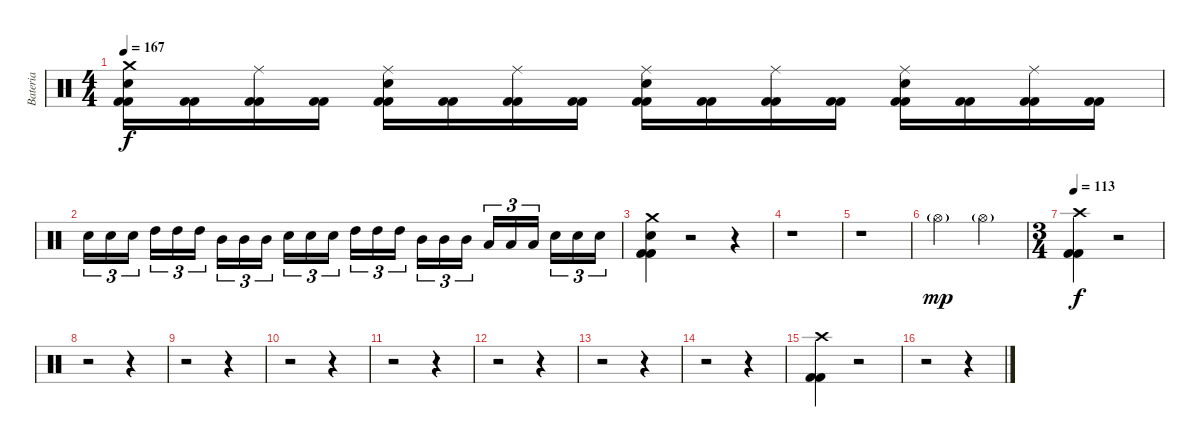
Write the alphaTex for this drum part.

\track ("Bateria" "Bateria") {instrument percussion}
\staff {score}
\articulation defaults
\ts (4 4)
\tempo 167
\clef neutral
\ks c
("Kick (hit) 2" "Kick (hit) 2" "Snare (hit) 2" "Crash medium (hit)").16{dy f} ("Kick (hit) 2" "Kick (hit) 2").16 ("Kick (hit) 2" "Kick (hit) 2" "Ride (middle)").16 ("Kick (hit) 2" "Kick (hit) 2").16 ("Kick (hit) 2" "Kick (hit) 2" "Snare (hit) 2" "Ride (middle)").16 ("Kick (hit) 2" "Kick (hit) 2").16 ("Kick (hit) 2" "Kick (hit) 2" "Ride (middle)").16 ("Kick (hit) 2" "Kick (hit) 2").16 ("Kick (hit) 2" "Kick (hit) 2" "Snare (hit) 2" "Ride (middle)").16 ("Kick (hit) 2" "Kick (hit) 2").16 ("Kick (hit) 2" "Kick (hit) 2" "Ride (middle)").16 ("Kick (hit) 2" "Kick (hit) 2").16 ("Kick (hit) 2" "Kick (hit) 2" "Snare (hit) 2" "Ride (middle)").16 ("Kick (hit) 2" "Kick (hit) 2").16 ("Kick (hit) 2" "Kick (hit) 2" "Ride (middle)").16 ("Kick (hit) 2" "Kick (hit) 2").16 |
"Snare (hit) 2".16{tu (3 2)} "Snare (hit) 2".16{tu (3 2)} "Snare (hit) 2".16{tu (3 2)} "High Tom (hit)".16{tu (3 2)} "High Tom (hit)".16{tu (3 2)} "High Tom (hit)".16{tu (3 2)} "Mid Tom (hit)".16{tu (3 2)} "Mid Tom (hit)".16{tu (3 2)} "Mid Tom (hit)".16{tu (3 2)} "Snare (hit) 2".16{tu (3 2)} "Snare (hit) 2".16{tu (3 2)} "Snare (hit) 2".16{tu (3 2)} "High Tom (hit)".16{tu (3 2)} "High Tom (hit)".16{tu (3 2)} "High Tom (hit)".16{tu (3 2)} "Mid Tom (hit)".16{tu (3 2)} "Mid Tom (hit)".16{tu (3 2)} "Mid Tom (hit)".16{tu (3 2)} "Low Tom (hit)".16{tu (3 2)} "Low Tom (hit)".16{tu (3 2)} "Low Tom (hit)".16{tu (3 2)} "Snare (hit) 2".16{tu (3 2)} "Snare (hit) 2".16{tu (3 2)} "Snare (hit) 2".16{tu (3 2)} |
("Kick (hit) 2" "Kick (hit) 2" "Snare (hit) 2" "Crash medium (hit)").4 r.2 r.4 |
r.1 |
r.1 |
"Hi-Hat (open)"{g}.2{dy mp} "Hi-Hat (open)"{g}.2 |
\ts (3 4)
\tempo 113
("Kick (hit) 2" "Kick (hit) 2" "Crash high (hit)").4{dy f} r.2 |
r.2 r.4 |
r.2 r.4 |
r.2 r.4 |
r.2 r.4 |
r.2 r.4 |
r.2 r.4 |
r.2 r.4 |
("Kick (hit) 2" "Kick (hit) 2" "Crash high (hit)").4 r.2 |
r.2 r.4
